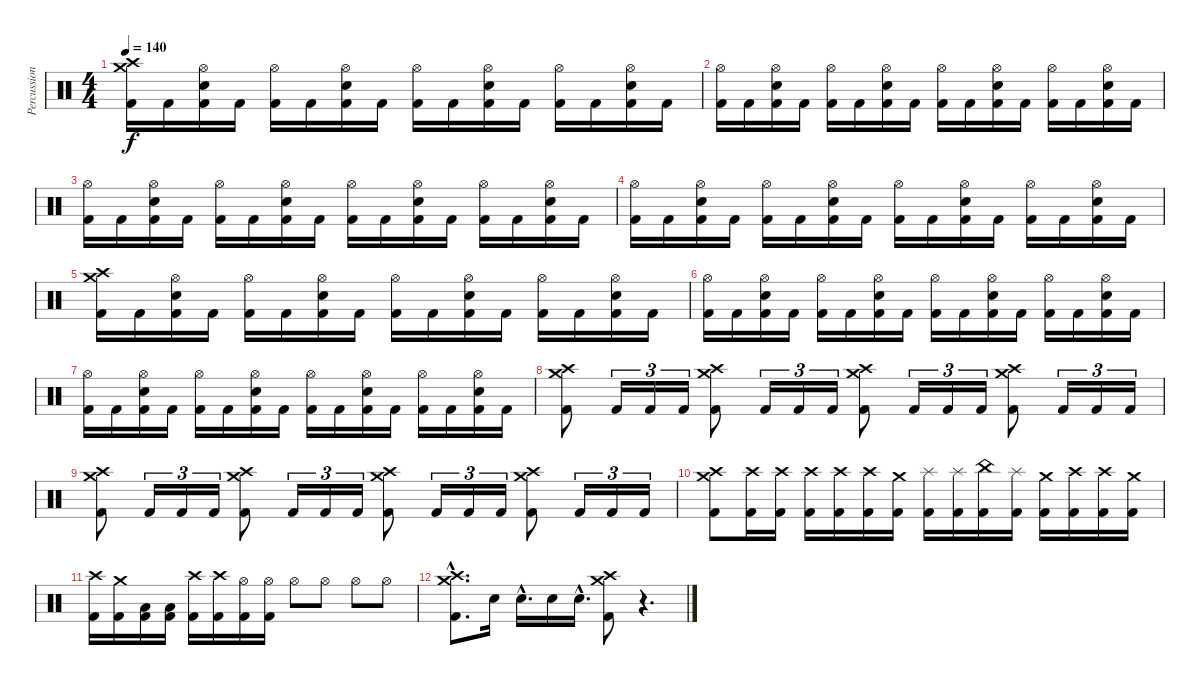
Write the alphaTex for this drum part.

\track ("Percussion" "Percussion") {instrument percussion}
\staff {score}
\articulation defaults
\ts (4 4)
\tempo 140
\clef neutral
\ks c
("Kick (hit) 2" "Crash high (hit)" "Crash medium (hit)").16{dy f} "Kick (hit) 2".16 ("Kick (hit) 2" "Electric Snare (hit)" "Hi-Hat (open)").16 "Kick (hit) 2".16 ("Kick (hit) 2" "Hi-Hat (open)").16 "Kick (hit) 2".16 ("Kick (hit) 2" "Electric Snare (hit)" "Hi-Hat (open)").16 "Kick (hit) 2".16 ("Kick (hit) 2" "Hi-Hat (open)").16 "Kick (hit) 2".16 ("Kick (hit) 2" "Electric Snare (hit)" "Hi-Hat (open)").16 "Kick (hit) 2".16 ("Kick (hit) 2" "Hi-Hat (open)").16 "Kick (hit) 2".16 ("Kick (hit) 2" "Electric Snare (hit)" "Hi-Hat (open)").16 "Kick (hit) 2".16 |
("Kick (hit) 2" "Hi-Hat (open)").16 "Kick (hit) 2".16 ("Kick (hit) 2" "Electric Snare (hit)" "Hi-Hat (open)").16 "Kick (hit) 2".16 ("Kick (hit) 2" "Hi-Hat (open)").16 "Kick (hit) 2".16 ("Kick (hit) 2" "Electric Snare (hit)" "Hi-Hat (open)").16 "Kick (hit) 2".16 ("Kick (hit) 2" "Hi-Hat (open)").16 "Kick (hit) 2".16 ("Kick (hit) 2" "Electric Snare (hit)" "Hi-Hat (open)").16 "Kick (hit) 2".16 ("Kick (hit) 2" "Hi-Hat (open)").16 "Kick (hit) 2".16 ("Kick (hit) 2" "Electric Snare (hit)" "Hi-Hat (open)").16 "Kick (hit) 2".16 |
("Kick (hit) 2" "Hi-Hat (open)").16 "Kick (hit) 2".16 ("Kick (hit) 2" "Electric Snare (hit)" "Hi-Hat (open)").16 "Kick (hit) 2".16 ("Kick (hit) 2" "Hi-Hat (open)").16 "Kick (hit) 2".16 ("Kick (hit) 2" "Electric Snare (hit)" "Hi-Hat (open)").16 "Kick (hit) 2".16 ("Kick (hit) 2" "Hi-Hat (open)").16 "Kick (hit) 2".16 ("Kick (hit) 2" "Electric Snare (hit)" "Hi-Hat (open)").16 "Kick (hit) 2".16 ("Kick (hit) 2" "Hi-Hat (open)").16 "Kick (hit) 2".16 ("Kick (hit) 2" "Electric Snare (hit)" "Hi-Hat (open)").16 "Kick (hit) 2".16 |
("Kick (hit) 2" "Hi-Hat (open)").16 "Kick (hit) 2".16 ("Kick (hit) 2" "Electric Snare (hit)" "Hi-Hat (open)").16 "Kick (hit) 2".16 ("Kick (hit) 2" "Hi-Hat (open)").16 "Kick (hit) 2".16 ("Kick (hit) 2" "Electric Snare (hit)" "Hi-Hat (open)").16 "Kick (hit) 2".16 ("Kick (hit) 2" "Hi-Hat (open)").16 "Kick (hit) 2".16 ("Kick (hit) 2" "Electric Snare (hit)" "Hi-Hat (open)").16 "Kick (hit) 2".16 ("Kick (hit) 2" "Hi-Hat (open)").16 "Kick (hit) 2".16 ("Kick (hit) 2" "Electric Snare (hit)" "Hi-Hat (open)").16 "Kick (hit) 2".16 |
("Kick (hit) 2" "Crash high (hit)" "Crash medium (hit)").16 "Kick (hit) 2".16 ("Kick (hit) 2" "Electric Snare (hit)" "Hi-Hat (open)").16 "Kick (hit) 2".16 ("Kick (hit) 2" "Hi-Hat (open)").16 "Kick (hit) 2".16 ("Kick (hit) 2" "Electric Snare (hit)" "Hi-Hat (open)").16 "Kick (hit) 2".16 ("Kick (hit) 2" "Hi-Hat (open)").16 "Kick (hit) 2".16 ("Kick (hit) 2" "Electric Snare (hit)" "Hi-Hat (open)").16 "Kick (hit) 2".16 ("Kick (hit) 2" "Hi-Hat (open)").16 "Kick (hit) 2".16 ("Kick (hit) 2" "Electric Snare (hit)" "Hi-Hat (open)").16 "Kick (hit) 2".16 |
("Kick (hit) 2" "Hi-Hat (open)").16 "Kick (hit) 2".16 ("Kick (hit) 2" "Electric Snare (hit)" "Hi-Hat (open)").16 "Kick (hit) 2".16 ("Kick (hit) 2" "Hi-Hat (open)").16 "Kick (hit) 2".16 ("Kick (hit) 2" "Electric Snare (hit)" "Hi-Hat (open)").16 "Kick (hit) 2".16 ("Kick (hit) 2" "Hi-Hat (open)").16 "Kick (hit) 2".16 ("Kick (hit) 2" "Electric Snare (hit)" "Hi-Hat (open)").16 "Kick (hit) 2".16 ("Kick (hit) 2" "Hi-Hat (open)").16 "Kick (hit) 2".16 ("Kick (hit) 2" "Electric Snare (hit)" "Hi-Hat (open)").16 "Kick (hit) 2".16 |
("Kick (hit) 2" "Hi-Hat (open)").16 "Kick (hit) 2".16 ("Kick (hit) 2" "Electric Snare (hit)" "Hi-Hat (open)").16 "Kick (hit) 2".16 ("Kick (hit) 2" "Hi-Hat (open)").16 "Kick (hit) 2".16 ("Kick (hit) 2" "Electric Snare (hit)" "Hi-Hat (open)").16 "Kick (hit) 2".16 ("Kick (hit) 2" "Hi-Hat (open)").16 "Kick (hit) 2".16 ("Kick (hit) 2" "Electric Snare (hit)" "Hi-Hat (open)").16 "Kick (hit) 2".16 ("Kick (hit) 2" "Hi-Hat (open)").16 "Kick (hit) 2".16 ("Kick (hit) 2" "Electric Snare (hit)" "Hi-Hat (open)").16 "Kick (hit) 2".16 |
("Kick (hit) 2" "Crash high (hit)" "Crash medium (hit)").8 "Kick (hit) 2".16{tu (3 2)} "Kick (hit) 2".16{tu (3 2)} "Kick (hit) 2".16{tu (3 2)} ("Kick (hit) 2" "Crash high (hit)" "Crash medium (hit)").8 "Kick (hit) 2".16{tu (3 2)} "Kick (hit) 2".16{tu (3 2)} "Kick (hit) 2".16{tu (3 2)} ("Kick (hit) 2" "Crash high (hit)" "Crash medium (hit)").8 "Kick (hit) 2".16{tu (3 2)} "Kick (hit) 2".16{tu (3 2)} "Kick (hit) 2".16{tu (3 2)} ("Kick (hit) 2" "Crash high (hit)" "Crash medium (hit)").8 "Kick (hit) 2".16{tu (3 2)} "Kick (hit) 2".16{tu (3 2)} "Kick (hit) 2".16{tu (3 2)} |
("Kick (hit) 2" "Crash high (hit)" "Crash medium (hit)").8 "Kick (hit) 2".16{tu (3 2)} "Kick (hit) 2".16{tu (3 2)} "Kick (hit) 2".16{tu (3 2)} ("Kick (hit) 2" "Crash high (hit)" "Crash medium (hit)").8 "Kick (hit) 2".16{tu (3 2)} "Kick (hit) 2".16{tu (3 2)} "Kick (hit) 2".16{tu (3 2)} ("Kick (hit) 2" "Crash high (hit)" "Crash medium (hit)").8 "Kick (hit) 2".16{tu (3 2)} "Kick (hit) 2".16{tu (3 2)} "Kick (hit) 2".16{tu (3 2)} ("Kick (hit) 2" "Crash high (hit)" "Crash medium (hit)").8 "Kick (hit) 2".16{tu (3 2)} "Kick (hit) 2".16{tu (3 2)} "Kick (hit) 2".16{tu (3 2)} |
("Kick (hit) 2" "Crash high (hit)" "Crash medium (hit)").8 ("Crash high (hit)" "Kick (hit) 2").16 ("Crash high (hit)" "Kick (hit) 2").16 ("Crash high (hit)" "Kick (hit) 2").16 ("Crash high (hit)" "Kick (hit) 2").16 ("Crash high (hit)" "Kick (hit) 2").16 ("Crash medium (hit)" "Kick (hit) 2").16 ("Splash (hit)" "Kick (hit) 2").16 ("Splash (hit)" "Kick (hit) 2").16 ("China (hit)" "Kick (hit) 2").16 ("Splash (hit)" "Kick (hit) 2").16 ("Crash medium (hit)" "Kick (hit) 2").16 ("Crash high (hit)" "Kick (hit) 2").16 ("Crash high (hit)" "Kick (hit) 2").16 ("Crash medium (hit)" "Kick (hit) 2").16 |
("Kick (hit) 2" "Crash high (hit)").16 ("Kick (hit) 2" "Crash medium (hit)").16 ("Kick (hit) 2" "Low Tom (hit)").16 ("Kick (hit) 2" "Low Tom (hit)").16 ("Kick (hit) 2" "Crash high (hit)").16 ("Kick (hit) 2" "Crash high (hit)").16 ("Kick (hit) 2" "Hi-Hat (open)").16 ("Kick (hit) 2" "Hi-Hat (open)").16 "Hi-Hat (open)".8 "Hi-Hat (open)".8 "Hi-Hat (open)".8 "Hi-Hat (open)".8 |
("Kick (hit) 2"{hac} "Crash high (hit)"{hac} "Crash medium (hit)"{hac}).8{d} "Electric Snare (hit)".16 "Electric Snare (hit)"{hac}.16{d} "Electric Snare (hit)".16 "Electric Snare (hit)"{hac}.16{d} ("Kick (hit) 2" "Crash high (hit)" "Crash medium (hit)").8 r.4{d}
